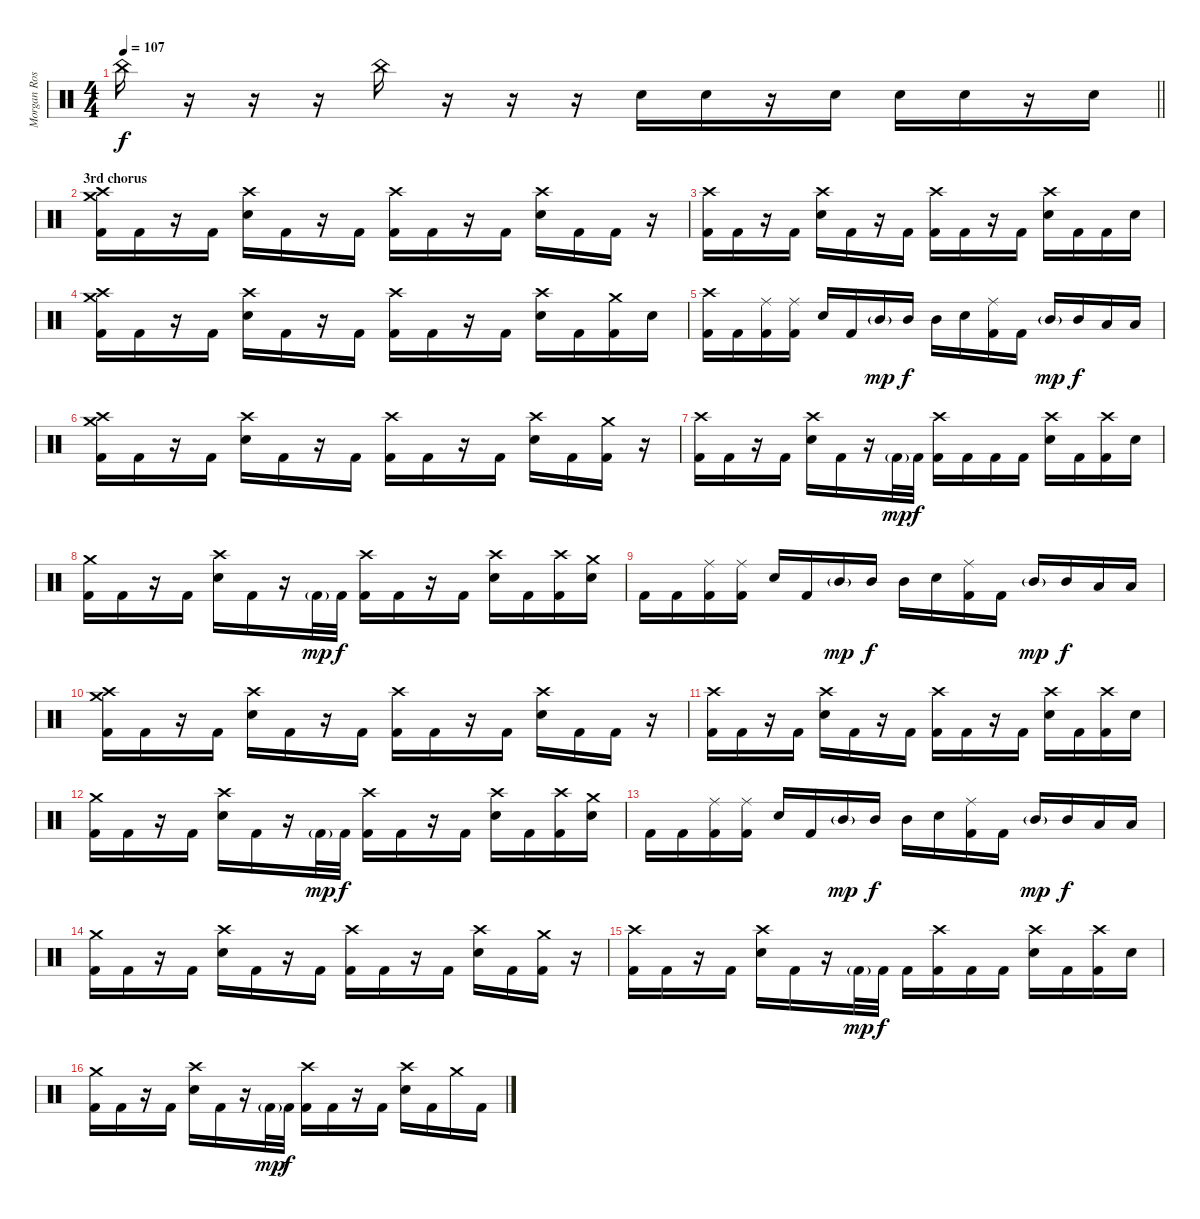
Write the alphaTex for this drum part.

\track ("Morgan Rose" "Morgan Ros") {instrument percussion}
\staff {score}
\articulation defaults
\ts (4 4)
\tempo 107
\clef neutral
\barLineRight lightlight
\ks c "China (hit)".16{dy f}
r.16 r.16 r.16 "China (hit)".16 r.16 r.16 r.16 "Snare (hit) 2".16 "Snare (hit) 2".16 r.16 "Snare (hit) 2".16 "Snare (hit) 2".16 "Snare (hit) 2".16 r.16 "Snare (hit) 2".16 |
\section ("" "3rd chorus")
("Crash medium (hit)" "Crash high (hit)" "Kick (hit) 2").16 "Kick (hit) 2".16 r.16 "Kick (hit) 2".16 ("Crash high (hit)" "Snare (hit) 2").16 "Kick (hit) 2".16 r.16 "Kick (hit) 2".16 ("Crash high (hit)" "Kick (hit) 2").16 "Kick (hit) 2".16 r.16 "Kick (hit) 2".16 ("Crash high (hit)" "Snare (hit) 2").16 "Kick (hit) 2".16 "Kick (hit) 2".16 r.16 |
("Crash high (hit)" "Kick (hit) 2").16 "Kick (hit) 2".16 r.16 "Kick (hit) 2".16 ("Crash high (hit)" "Snare (hit) 2").16 "Kick (hit) 2".16 r.16 "Kick (hit) 2".16 ("Crash high (hit)" "Kick (hit) 2").16 "Kick (hit) 2".16 r.16 "Kick (hit) 2".16 ("Crash high (hit)" "Snare (hit) 2").16 "Kick (hit) 2".16 "Kick (hit) 2".16 "Snare (hit) 2".16 |
("Crash medium (hit)" "Crash high (hit)" "Kick (hit) 2").16 "Kick (hit) 2".16 r.16 "Kick (hit) 2".16 ("Crash high (hit)" "Snare (hit) 2").16 "Kick (hit) 2".16 r.16 "Kick (hit) 2".16 ("Crash high (hit)" "Kick (hit) 2").16 "Kick (hit) 2".16 r.16 "Kick (hit) 2".16 ("Crash high (hit)" "Snare (hit) 2").16 "Kick (hit) 2".16 ("Crash medium (hit)" "Kick (hit) 2").16 "Snare (hit) 2".16 |
("Crash high (hit)" "Kick (hit) 2").16 "Kick (hit) 2".16 ("Ride (middle)" "Kick (hit) 2").16 ("Ride (middle)" "Kick (hit) 2").16 "Snare (hit) 2".16 "Kick (hit) 2".16 "Mid Tom (hit)"{g}.16{dy mp} "Mid Tom (hit)".16{dy f} "Mid Tom (hit)".16 "Snare (hit) 2".16 ("Ride (middle)" "Kick (hit) 2").16 "Kick (hit) 2".16 "Mid Tom (hit)"{g}.16{dy mp} "Mid Tom (hit)".16{dy f} "Low Tom (hit)".16 "Low Tom (hit)".16 |
("Crash medium (hit)" "Crash high (hit)" "Kick (hit) 2").16 "Kick (hit) 2".16 r.16 "Kick (hit) 2".16 ("Crash high (hit)" "Snare (hit) 2").16 "Kick (hit) 2".16 r.16 "Kick (hit) 2".16 ("Crash high (hit)" "Kick (hit) 2").16 "Kick (hit) 2".16 r.16 "Kick (hit) 2".16 ("Crash high (hit)" "Snare (hit) 2").16 "Kick (hit) 2".16 ("Crash medium (hit)" "Kick (hit) 2").16 r.16 |
("Crash high (hit)" "Kick (hit) 2").16 "Kick (hit) 2".16 r.16 "Kick (hit) 2".16 ("Crash high (hit)" "Snare (hit) 2").16 "Kick (hit) 2".16 r.16 "Kick (hit) 2"{g}.32{dy mp} "Kick (hit) 2".32{dy f} ("Crash high (hit)" "Kick (hit) 2").16 "Kick (hit) 2".16 "Kick (hit) 2".16 "Kick (hit) 2".16 ("Crash high (hit)" "Snare (hit) 2").16 "Kick (hit) 2".16 ("Crash high (hit)" "Kick (hit) 2").16 "Snare (hit) 2".16 |
("Crash medium (hit)" "Kick (hit) 2").16 "Kick (hit) 2".16 r.16 "Kick (hit) 2".16 ("Crash high (hit)" "Snare (hit) 2").16 "Kick (hit) 2".16 r.16 "Kick (hit) 2"{g}.32{dy mp} "Kick (hit) 2".32{dy f} ("Crash high (hit)" "Kick (hit) 2").16 "Kick (hit) 2".16 r.16 "Kick (hit) 2".16 ("Crash high (hit)" "Snare (hit) 2").16 "Kick (hit) 2".16 ("Crash high (hit)" "Kick (hit) 2").16 ("Crash medium (hit)" "Snare (hit) 2").16 |
"Kick (hit) 2".16 "Kick (hit) 2".16 ("Ride (middle)" "Kick (hit) 2").16 ("Ride (middle)" "Kick (hit) 2").16 "Snare (hit) 2".16 "Kick (hit) 2".16 "Mid Tom (hit)"{g}.16{dy mp} "Mid Tom (hit)".16{dy f} "Mid Tom (hit)".16 "Snare (hit) 2".16 ("Ride (middle)" "Kick (hit) 2").16 "Kick (hit) 2".16 "Mid Tom (hit)"{g}.16{dy mp} "Mid Tom (hit)".16{dy f} "Low Tom (hit)".16 "Low Tom (hit)".16 |
("Crash medium (hit)" "Crash high (hit)" "Kick (hit) 2").16 "Kick (hit) 2".16 r.16 "Kick (hit) 2".16 ("Crash high (hit)" "Snare (hit) 2").16 "Kick (hit) 2".16 r.16 "Kick (hit) 2".16 ("Crash high (hit)" "Kick (hit) 2").16 "Kick (hit) 2".16 r.16 "Kick (hit) 2".16 ("Crash high (hit)" "Snare (hit) 2").16 "Kick (hit) 2".16 "Kick (hit) 2".16 r.16 |
("Crash high (hit)" "Kick (hit) 2").16 "Kick (hit) 2".16 r.16 "Kick (hit) 2".16 ("Crash high (hit)" "Snare (hit) 2").16 "Kick (hit) 2".16 r.16 "Kick (hit) 2".16 ("Crash high (hit)" "Kick (hit) 2").16 "Kick (hit) 2".16 r.16 "Kick (hit) 2".16 ("Crash high (hit)" "Snare (hit) 2").16 "Kick (hit) 2".16 ("Crash high (hit)" "Kick (hit) 2").16 "Snare (hit) 2".16 |
("Crash medium (hit)" "Kick (hit) 2").16 "Kick (hit) 2".16 r.16 "Kick (hit) 2".16 ("Crash high (hit)" "Snare (hit) 2").16 "Kick (hit) 2".16 r.16 "Kick (hit) 2"{g}.32{dy mp} "Kick (hit) 2".32{dy f} ("Crash high (hit)" "Kick (hit) 2").16 "Kick (hit) 2".16 r.16 "Kick (hit) 2".16 ("Crash high (hit)" "Snare (hit) 2").16 "Kick (hit) 2".16 ("Crash high (hit)" "Kick (hit) 2").16 ("Crash medium (hit)" "Snare (hit) 2").16 |
"Kick (hit) 2".16 "Kick (hit) 2".16 ("Ride (middle)" "Kick (hit) 2").16 ("Ride (middle)" "Kick (hit) 2").16 "Snare (hit) 2".16 "Kick (hit) 2".16 "Mid Tom (hit)"{g}.16{dy mp} "Mid Tom (hit)".16{dy f} "Mid Tom (hit)".16 "Snare (hit) 2".16 ("Ride (middle)" "Kick (hit) 2").16 "Kick (hit) 2".16 "Mid Tom (hit)"{g}.16{dy mp} "Mid Tom (hit)".16{dy f} "Low Tom (hit)".16 "Low Tom (hit)".16 |
("Crash medium (hit)" "Kick (hit) 2").16 "Kick (hit) 2".16 r.16 "Kick (hit) 2".16 ("Crash high (hit)" "Snare (hit) 2").16 "Kick (hit) 2".16 r.16 "Kick (hit) 2".16 ("Crash high (hit)" "Kick (hit) 2").16 "Kick (hit) 2".16 r.16 "Kick (hit) 2".16 ("Crash high (hit)" "Snare (hit) 2").16 "Kick (hit) 2".16 ("Crash medium (hit)" "Kick (hit) 2").16 r.16 |
("Crash high (hit)" "Kick (hit) 2").16 "Kick (hit) 2".16 r.16 "Kick (hit) 2".16 ("Crash high (hit)" "Snare (hit) 2").16 "Kick (hit) 2".16 r.16 "Kick (hit) 2"{g}.32{dy mp} "Kick (hit) 2".32{dy f} "Kick (hit) 2".16 ("Crash high (hit)" "Kick (hit) 2").16 "Kick (hit) 2".16 "Kick (hit) 2".16 ("Crash high (hit)" "Snare (hit) 2").16 "Kick (hit) 2".16 ("Crash high (hit)" "Kick (hit) 2").16 "Snare (hit) 2".16 |
("Crash medium (hit)" "Kick (hit) 2").16 "Kick (hit) 2".16 r.16 "Kick (hit) 2".16 ("Crash high (hit)" "Snare (hit) 2").16 "Kick (hit) 2".16 r.16 "Kick (hit) 2"{g}.32{dy mp} "Kick (hit) 2".32{dy f} ("Crash high (hit)" "Kick (hit) 2").16 "Kick (hit) 2".16 r.16 "Kick (hit) 2".16 ("Crash high (hit)" "Snare (hit) 2").16 "Kick (hit) 2".16 "Crash medium (hit)".16 "Kick (hit) 2".16
